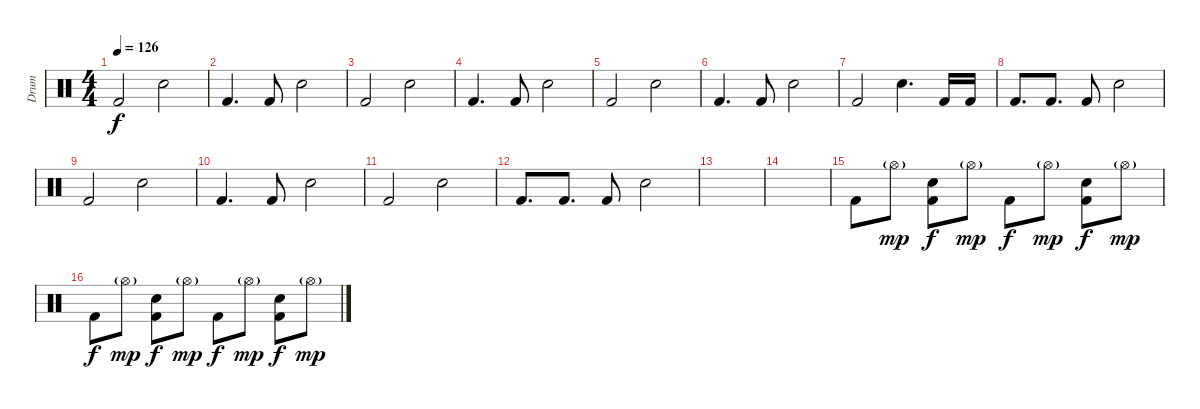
\track ("Drum" "Drum") {instrument percussion}
\staff {score}
\articulation defaults
\ts (4 4)
\tempo 126
\clef neutral
\ks c "Kick (hit) 2".2{dy f} "Snare (hit) 2".2
|
"Kick (hit) 2".4{d} "Kick (hit) 2".8 "Snare (hit) 2".2 |
"Kick (hit) 2".2 "Snare (hit) 2".2 |
"Kick (hit) 2".4{d} "Kick (hit) 2".8 "Snare (hit) 2".2 |
"Kick (hit) 2".2 "Snare (hit) 2".2 |
"Kick (hit) 2".4{d} "Kick (hit) 2".8 "Snare (hit) 2".2 |
"Kick (hit) 2".2 "Snare (hit) 2".4{d} "Kick (hit) 2".16 "Kick (hit) 2".16 |
"Kick (hit) 2".8{d} "Kick (hit) 2".8{d} "Kick (hit) 2".8 "Snare (hit) 2".2 |
"Kick (hit) 2".2 "Snare (hit) 2".2 |
"Kick (hit) 2".4{d} "Kick (hit) 2".8 "Snare (hit) 2".2 |
"Kick (hit) 2".2 "Snare (hit) 2".2 |
"Kick (hit) 2".8{d} "Kick (hit) 2".8{d} "Kick (hit) 2".8 "Snare (hit) 2".2 |
|
|
"Kick (hit) 2".8 "Hi-Hat (open)"{g}.8{dy mp} ("Electric Snare (hit)" "Kick (hit) 2").8{dy f} "Hi-Hat (open)"{g}.8{dy mp} "Kick (hit) 2".8{dy f} "Hi-Hat (open)"{g}.8{dy mp} ("Electric Snare (hit)" "Kick (hit) 2").8{dy f} "Hi-Hat (open)"{g}.8{dy mp} |
"Kick (hit) 2".8{dy f} "Hi-Hat (open)"{g}.8{dy mp} ("Electric Snare (hit)" "Kick (hit) 2").8{dy f} "Hi-Hat (open)"{g}.8{dy mp} "Kick (hit) 2".8{dy f} "Hi-Hat (open)"{g}.8{dy mp} ("Electric Snare (hit)" "Kick (hit) 2").8{dy f} "Hi-Hat (open)"{g}.8{dy mp}
